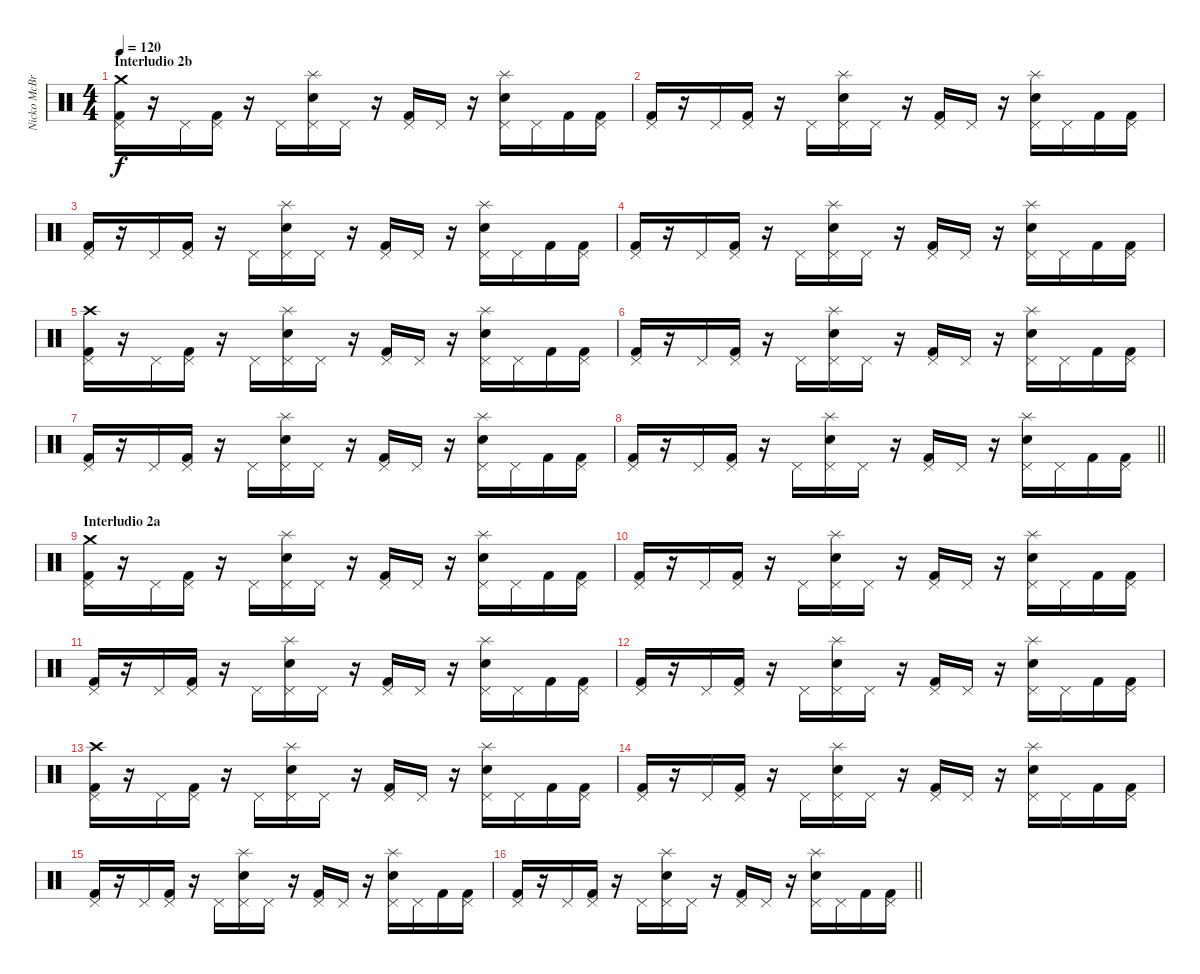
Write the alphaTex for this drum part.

\track ("Nicko McBrain" "Nicko McBr") {instrument percussion}
\staff {score}
\articulation defaults
\ts (4 4)
\section ("" "Interludio 2b")
\tempo 120
\clef neutral
\ks c
("Kick (hit) 2" "Pedal Hi-Hat (hit)" "Crash medium (hit)").16{dy f} r.16 "Pedal Hi-Hat (hit)".16 ("Kick (hit) 2" "Pedal Hi-Hat (hit)").16 r.16 "Pedal Hi-Hat (hit)".16 ("Snare (hit) 2" "Pedal Hi-Hat (hit)" "Splash (hit)").16 "Pedal Hi-Hat (hit)".16 r.16 ("Kick (hit) 2" "Pedal Hi-Hat (hit)").16 "Pedal Hi-Hat (hit)".16 r.16 ("Snare (hit) 2" "Pedal Hi-Hat (hit)" "Splash (hit)").16 "Pedal Hi-Hat (hit)".16 "Kick (hit) 2".16 ("Kick (hit) 2" "Pedal Hi-Hat (hit)").16 |
("Kick (hit) 2" "Pedal Hi-Hat (hit)").16 r.16 "Pedal Hi-Hat (hit)".16 ("Kick (hit) 2" "Pedal Hi-Hat (hit)").16 r.16 "Pedal Hi-Hat (hit)".16 ("Snare (hit) 2" "Pedal Hi-Hat (hit)" "Splash (hit)").16 "Pedal Hi-Hat (hit)".16 r.16 ("Kick (hit) 2" "Pedal Hi-Hat (hit)").16 "Pedal Hi-Hat (hit)".16 r.16 ("Snare (hit) 2" "Pedal Hi-Hat (hit)" "Splash (hit)").16 "Pedal Hi-Hat (hit)".16 "Kick (hit) 2".16 ("Kick (hit) 2" "Pedal Hi-Hat (hit)").16 |
("Kick (hit) 2" "Pedal Hi-Hat (hit)").16 r.16 "Pedal Hi-Hat (hit)".16 ("Kick (hit) 2" "Pedal Hi-Hat (hit)").16 r.16 "Pedal Hi-Hat (hit)".16 ("Snare (hit) 2" "Pedal Hi-Hat (hit)" "Splash (hit)").16 "Pedal Hi-Hat (hit)".16 r.16 ("Kick (hit) 2" "Pedal Hi-Hat (hit)").16 "Pedal Hi-Hat (hit)".16 r.16 ("Snare (hit) 2" "Pedal Hi-Hat (hit)" "Splash (hit)").16 "Pedal Hi-Hat (hit)".16 "Kick (hit) 2".16 ("Kick (hit) 2" "Pedal Hi-Hat (hit)").16 |
("Kick (hit) 2" "Pedal Hi-Hat (hit)").16 r.16 "Pedal Hi-Hat (hit)".16 ("Kick (hit) 2" "Pedal Hi-Hat (hit)").16 r.16 "Pedal Hi-Hat (hit)".16 ("Snare (hit) 2" "Pedal Hi-Hat (hit)" "Splash (hit)").16 "Pedal Hi-Hat (hit)".16 r.16 ("Kick (hit) 2" "Pedal Hi-Hat (hit)").16 "Pedal Hi-Hat (hit)".16 r.16 ("Snare (hit) 2" "Pedal Hi-Hat (hit)" "Splash (hit)").16 "Pedal Hi-Hat (hit)".16 "Kick (hit) 2".16 ("Kick (hit) 2" "Pedal Hi-Hat (hit)").16 |
("Kick (hit) 2" "Pedal Hi-Hat (hit)" "Crash high (hit)").16 r.16 "Pedal Hi-Hat (hit)".16 ("Kick (hit) 2" "Pedal Hi-Hat (hit)").16 r.16 "Pedal Hi-Hat (hit)".16 ("Snare (hit) 2" "Pedal Hi-Hat (hit)" "Splash (hit)").16 "Pedal Hi-Hat (hit)".16 r.16 ("Kick (hit) 2" "Pedal Hi-Hat (hit)").16 "Pedal Hi-Hat (hit)".16 r.16 ("Snare (hit) 2" "Pedal Hi-Hat (hit)" "Splash (hit)").16 "Pedal Hi-Hat (hit)".16 "Kick (hit) 2".16 ("Kick (hit) 2" "Pedal Hi-Hat (hit)").16 |
("Kick (hit) 2" "Pedal Hi-Hat (hit)").16 r.16 "Pedal Hi-Hat (hit)".16 ("Kick (hit) 2" "Pedal Hi-Hat (hit)").16 r.16 "Pedal Hi-Hat (hit)".16 ("Snare (hit) 2" "Pedal Hi-Hat (hit)" "Splash (hit)").16 "Pedal Hi-Hat (hit)".16 r.16 ("Kick (hit) 2" "Pedal Hi-Hat (hit)").16 "Pedal Hi-Hat (hit)".16 r.16 ("Snare (hit) 2" "Pedal Hi-Hat (hit)" "Splash (hit)").16 "Pedal Hi-Hat (hit)".16 "Kick (hit) 2".16 ("Kick (hit) 2" "Pedal Hi-Hat (hit)").16 |
("Kick (hit) 2" "Pedal Hi-Hat (hit)").16 r.16 "Pedal Hi-Hat (hit)".16 ("Kick (hit) 2" "Pedal Hi-Hat (hit)").16 r.16 "Pedal Hi-Hat (hit)".16 ("Snare (hit) 2" "Pedal Hi-Hat (hit)" "Splash (hit)").16 "Pedal Hi-Hat (hit)".16 r.16 ("Kick (hit) 2" "Pedal Hi-Hat (hit)").16 "Pedal Hi-Hat (hit)".16 r.16 ("Snare (hit) 2" "Pedal Hi-Hat (hit)" "Splash (hit)").16 "Pedal Hi-Hat (hit)".16 "Kick (hit) 2".16 ("Kick (hit) 2" "Pedal Hi-Hat (hit)").16 |
\barLineRight lightlight
("Kick (hit) 2" "Pedal Hi-Hat (hit)").16 r.16 "Pedal Hi-Hat (hit)".16 ("Kick (hit) 2" "Pedal Hi-Hat (hit)").16 r.16 "Pedal Hi-Hat (hit)".16 ("Snare (hit) 2" "Pedal Hi-Hat (hit)" "Splash (hit)").16 "Pedal Hi-Hat (hit)".16 r.16 ("Kick (hit) 2" "Pedal Hi-Hat (hit)").16 "Pedal Hi-Hat (hit)".16 r.16 ("Snare (hit) 2" "Pedal Hi-Hat (hit)" "Splash (hit)").16 "Pedal Hi-Hat (hit)".16 "Kick (hit) 2".16 ("Kick (hit) 2" "Pedal Hi-Hat (hit)").16 |
\section ("" "Interludio 2a")
("Kick (hit) 2" "Pedal Hi-Hat (hit)" "Crash medium (hit)").16 r.16 "Pedal Hi-Hat (hit)".16 ("Kick (hit) 2" "Pedal Hi-Hat (hit)").16 r.16 "Pedal Hi-Hat (hit)".16 ("Snare (hit) 2" "Pedal Hi-Hat (hit)" "Splash (hit)").16 "Pedal Hi-Hat (hit)".16 r.16 ("Kick (hit) 2" "Pedal Hi-Hat (hit)").16 "Pedal Hi-Hat (hit)".16 r.16 ("Snare (hit) 2" "Pedal Hi-Hat (hit)" "Splash (hit)").16 "Pedal Hi-Hat (hit)".16 "Kick (hit) 2".16 ("Kick (hit) 2" "Pedal Hi-Hat (hit)").16 |
("Kick (hit) 2" "Pedal Hi-Hat (hit)").16 r.16 "Pedal Hi-Hat (hit)".16 ("Kick (hit) 2" "Pedal Hi-Hat (hit)").16 r.16 "Pedal Hi-Hat (hit)".16 ("Snare (hit) 2" "Pedal Hi-Hat (hit)" "Splash (hit)").16 "Pedal Hi-Hat (hit)".16 r.16 ("Kick (hit) 2" "Pedal Hi-Hat (hit)").16 "Pedal Hi-Hat (hit)".16 r.16 ("Snare (hit) 2" "Pedal Hi-Hat (hit)" "Splash (hit)").16 "Pedal Hi-Hat (hit)".16 "Kick (hit) 2".16 ("Kick (hit) 2" "Pedal Hi-Hat (hit)").16 |
("Kick (hit) 2" "Pedal Hi-Hat (hit)").16 r.16 "Pedal Hi-Hat (hit)".16 ("Kick (hit) 2" "Pedal Hi-Hat (hit)").16 r.16 "Pedal Hi-Hat (hit)".16 ("Snare (hit) 2" "Pedal Hi-Hat (hit)" "Splash (hit)").16 "Pedal Hi-Hat (hit)".16 r.16 ("Kick (hit) 2" "Pedal Hi-Hat (hit)").16 "Pedal Hi-Hat (hit)".16 r.16 ("Snare (hit) 2" "Pedal Hi-Hat (hit)" "Splash (hit)").16 "Pedal Hi-Hat (hit)".16 "Kick (hit) 2".16 ("Kick (hit) 2" "Pedal Hi-Hat (hit)").16 |
("Kick (hit) 2" "Pedal Hi-Hat (hit)").16 r.16 "Pedal Hi-Hat (hit)".16 ("Kick (hit) 2" "Pedal Hi-Hat (hit)").16 r.16 "Pedal Hi-Hat (hit)".16 ("Snare (hit) 2" "Pedal Hi-Hat (hit)" "Splash (hit)").16 "Pedal Hi-Hat (hit)".16 r.16 ("Kick (hit) 2" "Pedal Hi-Hat (hit)").16 "Pedal Hi-Hat (hit)".16 r.16 ("Snare (hit) 2" "Pedal Hi-Hat (hit)" "Splash (hit)").16 "Pedal Hi-Hat (hit)".16 "Kick (hit) 2".16 ("Kick (hit) 2" "Pedal Hi-Hat (hit)").16 |
("Kick (hit) 2" "Pedal Hi-Hat (hit)" "Crash high (hit)").16 r.16 "Pedal Hi-Hat (hit)".16 ("Kick (hit) 2" "Pedal Hi-Hat (hit)").16 r.16 "Pedal Hi-Hat (hit)".16 ("Snare (hit) 2" "Pedal Hi-Hat (hit)" "Splash (hit)").16 "Pedal Hi-Hat (hit)".16 r.16 ("Kick (hit) 2" "Pedal Hi-Hat (hit)").16 "Pedal Hi-Hat (hit)".16 r.16 ("Snare (hit) 2" "Pedal Hi-Hat (hit)" "Splash (hit)").16 "Pedal Hi-Hat (hit)".16 "Kick (hit) 2".16 ("Kick (hit) 2" "Pedal Hi-Hat (hit)").16 |
("Kick (hit) 2" "Pedal Hi-Hat (hit)").16 r.16 "Pedal Hi-Hat (hit)".16 ("Kick (hit) 2" "Pedal Hi-Hat (hit)").16 r.16 "Pedal Hi-Hat (hit)".16 ("Snare (hit) 2" "Pedal Hi-Hat (hit)" "Splash (hit)").16 "Pedal Hi-Hat (hit)".16 r.16 ("Kick (hit) 2" "Pedal Hi-Hat (hit)").16 "Pedal Hi-Hat (hit)".16 r.16 ("Snare (hit) 2" "Pedal Hi-Hat (hit)" "Splash (hit)").16 "Pedal Hi-Hat (hit)".16 "Kick (hit) 2".16 ("Kick (hit) 2" "Pedal Hi-Hat (hit)").16 |
("Kick (hit) 2" "Pedal Hi-Hat (hit)").16 r.16 "Pedal Hi-Hat (hit)".16 ("Kick (hit) 2" "Pedal Hi-Hat (hit)").16 r.16 "Pedal Hi-Hat (hit)".16 ("Snare (hit) 2" "Pedal Hi-Hat (hit)" "Splash (hit)").16 "Pedal Hi-Hat (hit)".16 r.16 ("Kick (hit) 2" "Pedal Hi-Hat (hit)").16 "Pedal Hi-Hat (hit)".16 r.16 ("Snare (hit) 2" "Pedal Hi-Hat (hit)" "Splash (hit)").16 "Pedal Hi-Hat (hit)".16 "Kick (hit) 2".16 ("Kick (hit) 2" "Pedal Hi-Hat (hit)").16 |
\barLineRight lightlight
("Kick (hit) 2" "Pedal Hi-Hat (hit)").16 r.16 "Pedal Hi-Hat (hit)".16 ("Kick (hit) 2" "Pedal Hi-Hat (hit)").16 r.16 "Pedal Hi-Hat (hit)".16 ("Snare (hit) 2" "Pedal Hi-Hat (hit)" "Splash (hit)").16 "Pedal Hi-Hat (hit)".16 r.16 ("Kick (hit) 2" "Pedal Hi-Hat (hit)").16 "Pedal Hi-Hat (hit)".16 r.16 ("Snare (hit) 2" "Pedal Hi-Hat (hit)" "Splash (hit)").16 "Pedal Hi-Hat (hit)".16 "Kick (hit) 2".16 ("Kick (hit) 2" "Pedal Hi-Hat (hit)").16
